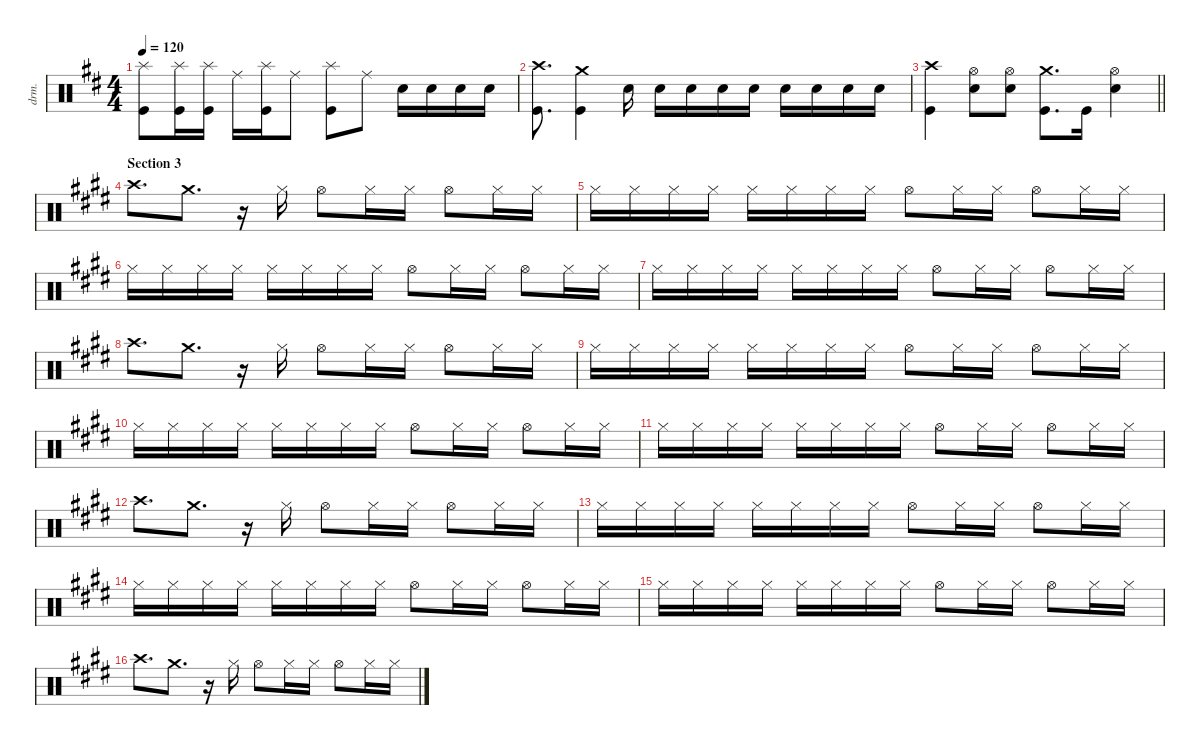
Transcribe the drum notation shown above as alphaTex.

\defaultSystemsLayout 4
\hideDynamics
\bracketExtendMode nobrackets
\otherSystemsTrackNameOrientation horizontal
\track ("Drums" "drm.") {instrument percussion}
\staff {score}
\articulation defaults
\ts (4 4)
\tempo 120
\clef neutral
\ks d
("Splash (hit)"{acc forcenatural} "Kick (hit)"{acc forcenatural}).8{dy f} ("Splash (hit)"{acc forcenatural} "Kick (hit)"{acc forcenatural}).16 ("Splash (hit)"{acc forcenatural} "Kick (hit)"{acc forcenatural}).16 "Ride (middle)"{acc forcenatural}.16 ("Splash (hit)"{acc forcenatural} "Kick (hit)"{acc forcenatural}).16 "Ride (middle)"{acc forcenatural}.8 ("Splash (hit)"{acc forcenatural} "Kick (hit)"{acc forcenatural}).8 "Ride (middle)"{acc forcenatural}.8 "Snare (hit) 2"{acc forcenatural}.16 "Snare (hit) 2"{acc forcenatural}.16 "Snare (hit) 2"{acc forcenatural}.16 "Snare (hit) 2"{acc forcenatural}.16 |
("Crash high (hit)"{acc forcenatural} "Kick (hit)"{acc forcenatural}).8{d} ("Crash medium (hit)"{acc forcenatural} "Kick (hit)"{acc forcenatural}).4 "Snare (hit) 2"{acc forcenatural}.16 "Snare (hit) 2"{acc forcenatural}.16 "Snare (hit) 2"{acc forcenatural}.16 "Snare (hit) 2"{acc forcenatural}.16 "Snare (hit) 2"{acc forcenatural}.16 "Snare (hit) 2"{acc forcenatural}.16 "Snare (hit) 2"{acc forcenatural}.16 "Snare (hit) 2"{acc forcenatural}.16 "Snare (hit) 2"{acc forcenatural}.16 |
\barLineRight lightlight
("Crash high (hit)"{acc forcenatural} "Kick (hit)"{acc forcenatural}).4 ("Hi-Hat (open)"{acc forcenatural} "Snare (hit) 2"{acc forcenatural}).8 ("Hi-Hat (open)"{acc forcenatural} "Snare (hit) 2"{acc forcenatural}).8 ("Crash medium (hit)"{acc forcenatural} "Kick (hit)"{acc forcenatural}).8{d} "Kick (hit)"{acc forcenatural}.16 ("Hi-Hat (open)"{acc forcenatural} "Snare (hit) 2"{acc forcenatural}).4 |
\section ("" "Section 3")
\ks e "Crash high (hit)"{acc forcenatural}.8{d} "Crash medium (hit)"{acc forcenatural}.8{d}
r.16 "Hi-Hat (closed)"{acc forcenatural}.16 "Hi-Hat (open)"{acc forcenatural}.8 "Hi-Hat (closed)"{acc forcenatural}.16 "Hi-Hat (closed)"{acc forcenatural}.16 "Hi-Hat (open)"{acc forcenatural}.8 "Hi-Hat (closed)"{acc forcenatural}.16 "Hi-Hat (closed)"{acc forcenatural}.16 |
"Hi-Hat (closed)"{acc forcenatural}.16 "Hi-Hat (closed)"{acc forcenatural}.16 "Hi-Hat (closed)"{acc forcenatural}.16 "Hi-Hat (closed)"{acc forcenatural}.16 "Hi-Hat (closed)"{acc forcenatural}.16 "Hi-Hat (closed)"{acc forcenatural}.16 "Hi-Hat (closed)"{acc forcenatural}.16 "Hi-Hat (closed)"{acc forcenatural}.16 "Hi-Hat (open)"{acc forcenatural}.8 "Hi-Hat (closed)"{acc forcenatural}.16 "Hi-Hat (closed)"{acc forcenatural}.16 "Hi-Hat (open)"{acc forcenatural}.8 "Hi-Hat (closed)"{acc forcenatural}.16 "Hi-Hat (closed)"{acc forcenatural}.16 |
"Hi-Hat (closed)"{acc forcenatural}.16 "Hi-Hat (closed)"{acc forcenatural}.16 "Hi-Hat (closed)"{acc forcenatural}.16 "Hi-Hat (closed)"{acc forcenatural}.16 "Hi-Hat (closed)"{acc forcenatural}.16 "Hi-Hat (closed)"{acc forcenatural}.16 "Hi-Hat (closed)"{acc forcenatural}.16 "Hi-Hat (closed)"{acc forcenatural}.16 "Hi-Hat (open)"{acc forcenatural}.8 "Hi-Hat (closed)"{acc forcenatural}.16 "Hi-Hat (closed)"{acc forcenatural}.16 "Hi-Hat (open)"{acc forcenatural}.8 "Hi-Hat (closed)"{acc forcenatural}.16 "Hi-Hat (closed)"{acc forcenatural}.16 |
"Hi-Hat (closed)"{acc forcenatural}.16 "Hi-Hat (closed)"{acc forcenatural}.16 "Hi-Hat (closed)"{acc forcenatural}.16 "Hi-Hat (closed)"{acc forcenatural}.16 "Hi-Hat (closed)"{acc forcenatural}.16 "Hi-Hat (closed)"{acc forcenatural}.16 "Hi-Hat (closed)"{acc forcenatural}.16 "Hi-Hat (closed)"{acc forcenatural}.16 "Hi-Hat (open)"{acc forcenatural}.8 "Hi-Hat (closed)"{acc forcenatural}.16 "Hi-Hat (closed)"{acc forcenatural}.16 "Hi-Hat (open)"{acc forcenatural}.8 "Hi-Hat (closed)"{acc forcenatural}.16 "Hi-Hat (closed)"{acc forcenatural}.16 |
"Crash high (hit)"{acc forcenatural}.8{d} "Crash medium (hit)"{acc forcenatural}.8{d} r.16 "Hi-Hat (closed)"{acc forcenatural}.16 "Hi-Hat (open)"{acc forcenatural}.8 "Hi-Hat (closed)"{acc forcenatural}.16 "Hi-Hat (closed)"{acc forcenatural}.16 "Hi-Hat (open)"{acc forcenatural}.8 "Hi-Hat (closed)"{acc forcenatural}.16 "Hi-Hat (closed)"{acc forcenatural}.16 |
"Hi-Hat (closed)"{acc forcenatural}.16 "Hi-Hat (closed)"{acc forcenatural}.16 "Hi-Hat (closed)"{acc forcenatural}.16 "Hi-Hat (closed)"{acc forcenatural}.16 "Hi-Hat (closed)"{acc forcenatural}.16 "Hi-Hat (closed)"{acc forcenatural}.16 "Hi-Hat (closed)"{acc forcenatural}.16 "Hi-Hat (closed)"{acc forcenatural}.16 "Hi-Hat (open)"{acc forcenatural}.8 "Hi-Hat (closed)"{acc forcenatural}.16 "Hi-Hat (closed)"{acc forcenatural}.16 "Hi-Hat (open)"{acc forcenatural}.8 "Hi-Hat (closed)"{acc forcenatural}.16 "Hi-Hat (closed)"{acc forcenatural}.16 |
"Hi-Hat (closed)"{acc forcenatural}.16 "Hi-Hat (closed)"{acc forcenatural}.16 "Hi-Hat (closed)"{acc forcenatural}.16 "Hi-Hat (closed)"{acc forcenatural}.16 "Hi-Hat (closed)"{acc forcenatural}.16 "Hi-Hat (closed)"{acc forcenatural}.16 "Hi-Hat (closed)"{acc forcenatural}.16 "Hi-Hat (closed)"{acc forcenatural}.16 "Hi-Hat (open)"{acc forcenatural}.8 "Hi-Hat (closed)"{acc forcenatural}.16 "Hi-Hat (closed)"{acc forcenatural}.16 "Hi-Hat (open)"{acc forcenatural}.8 "Hi-Hat (closed)"{acc forcenatural}.16 "Hi-Hat (closed)"{acc forcenatural}.16 |
"Hi-Hat (closed)"{acc forcenatural}.16 "Hi-Hat (closed)"{acc forcenatural}.16 "Hi-Hat (closed)"{acc forcenatural}.16 "Hi-Hat (closed)"{acc forcenatural}.16 "Hi-Hat (closed)"{acc forcenatural}.16 "Hi-Hat (closed)"{acc forcenatural}.16 "Hi-Hat (closed)"{acc forcenatural}.16 "Hi-Hat (closed)"{acc forcenatural}.16 "Hi-Hat (open)"{acc forcenatural}.8 "Hi-Hat (closed)"{acc forcenatural}.16 "Hi-Hat (closed)"{acc forcenatural}.16 "Hi-Hat (open)"{acc forcenatural}.8 "Hi-Hat (closed)"{acc forcenatural}.16 "Hi-Hat (closed)"{acc forcenatural}.16 |
"Crash high (hit)"{acc forcenatural}.8{d} "Crash medium (hit)"{acc forcenatural}.8{d} r.16 "Hi-Hat (closed)"{acc forcenatural}.16 "Hi-Hat (open)"{acc forcenatural}.8 "Hi-Hat (closed)"{acc forcenatural}.16 "Hi-Hat (closed)"{acc forcenatural}.16 "Hi-Hat (open)"{acc forcenatural}.8 "Hi-Hat (closed)"{acc forcenatural}.16 "Hi-Hat (closed)"{acc forcenatural}.16 |
"Hi-Hat (closed)"{acc forcenatural}.16 "Hi-Hat (closed)"{acc forcenatural}.16 "Hi-Hat (closed)"{acc forcenatural}.16 "Hi-Hat (closed)"{acc forcenatural}.16 "Hi-Hat (closed)"{acc forcenatural}.16 "Hi-Hat (closed)"{acc forcenatural}.16 "Hi-Hat (closed)"{acc forcenatural}.16 "Hi-Hat (closed)"{acc forcenatural}.16 "Hi-Hat (open)"{acc forcenatural}.8 "Hi-Hat (closed)"{acc forcenatural}.16 "Hi-Hat (closed)"{acc forcenatural}.16 "Hi-Hat (open)"{acc forcenatural}.8 "Hi-Hat (closed)"{acc forcenatural}.16 "Hi-Hat (closed)"{acc forcenatural}.16 |
"Hi-Hat (closed)"{acc forcenatural}.16 "Hi-Hat (closed)"{acc forcenatural}.16 "Hi-Hat (closed)"{acc forcenatural}.16 "Hi-Hat (closed)"{acc forcenatural}.16 "Hi-Hat (closed)"{acc forcenatural}.16 "Hi-Hat (closed)"{acc forcenatural}.16 "Hi-Hat (closed)"{acc forcenatural}.16 "Hi-Hat (closed)"{acc forcenatural}.16 "Hi-Hat (open)"{acc forcenatural}.8 "Hi-Hat (closed)"{acc forcenatural}.16 "Hi-Hat (closed)"{acc forcenatural}.16 "Hi-Hat (open)"{acc forcenatural}.8 "Hi-Hat (closed)"{acc forcenatural}.16 "Hi-Hat (closed)"{acc forcenatural}.16 |
"Hi-Hat (closed)"{acc forcenatural}.16 "Hi-Hat (closed)"{acc forcenatural}.16 "Hi-Hat (closed)"{acc forcenatural}.16 "Hi-Hat (closed)"{acc forcenatural}.16 "Hi-Hat (closed)"{acc forcenatural}.16 "Hi-Hat (closed)"{acc forcenatural}.16 "Hi-Hat (closed)"{acc forcenatural}.16 "Hi-Hat (closed)"{acc forcenatural}.16 "Hi-Hat (open)"{acc forcenatural}.8 "Hi-Hat (closed)"{acc forcenatural}.16 "Hi-Hat (closed)"{acc forcenatural}.16 "Hi-Hat (open)"{acc forcenatural}.8 "Hi-Hat (closed)"{acc forcenatural}.16 "Hi-Hat (closed)"{acc forcenatural}.16 |
"Crash high (hit)"{acc forcenatural}.8{d} "Crash medium (hit)"{acc forcenatural}.8{d} r.16 "Hi-Hat (closed)"{acc forcenatural}.16 "Hi-Hat (open)"{acc forcenatural}.8 "Hi-Hat (closed)"{acc forcenatural}.16 "Hi-Hat (closed)"{acc forcenatural}.16 "Hi-Hat (open)"{acc forcenatural}.8 "Hi-Hat (closed)"{acc forcenatural}.16 "Hi-Hat (closed)"{acc forcenatural}.16
